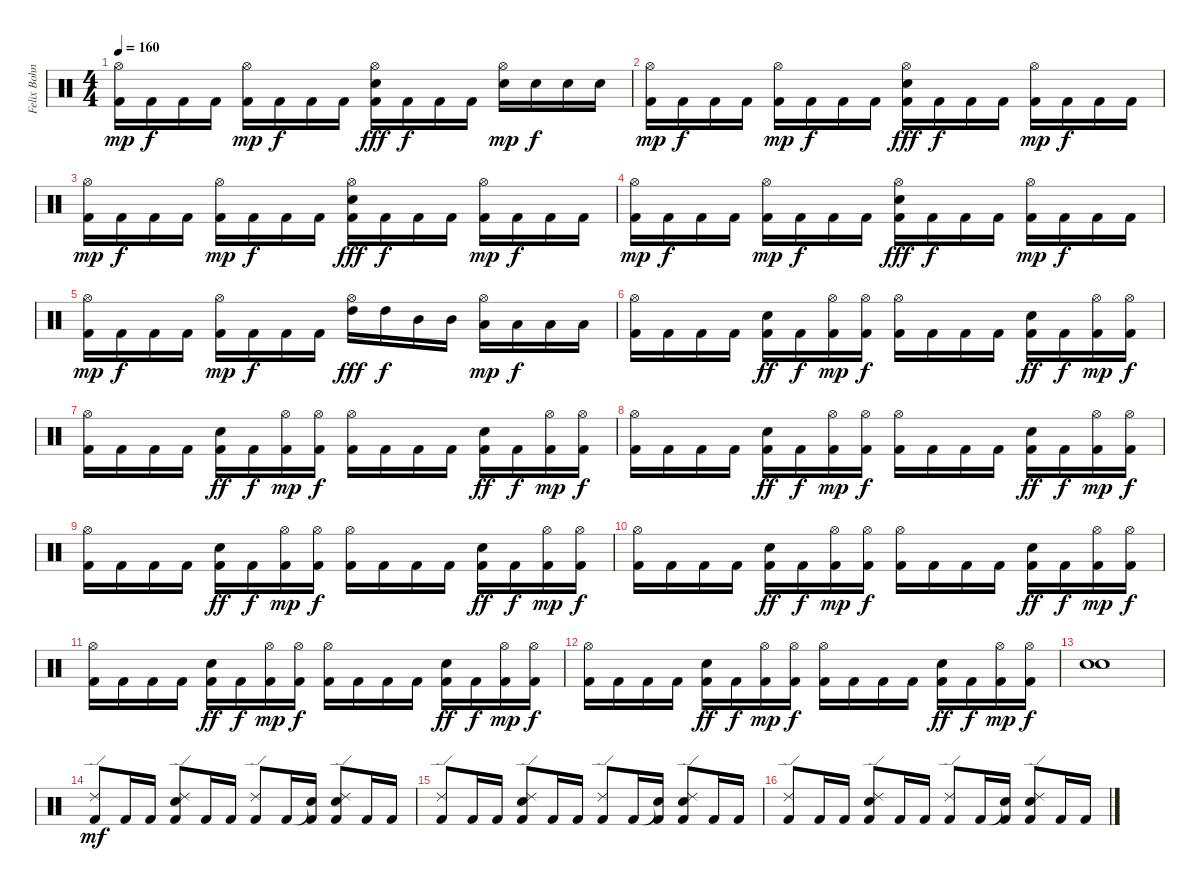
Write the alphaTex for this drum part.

\track ("Felix Bohnke" "Felix Bohn") {instrument percussion}
\staff {score}
\articulation defaults
\ts (4 4)
\tempo 160
\clef neutral
\ks c
("Hi-Hat (open)" "Kick (hit) 2").16{dy mp} "Kick (hit) 2".16{dy f} "Kick (hit) 2".16 "Kick (hit) 2".16 ("Hi-Hat (open)" "Kick (hit) 2").16{dy mp} "Kick (hit) 2".16{dy f} "Kick (hit) 2".16 "Kick (hit) 2".16 ("Hi-Hat (open)" "Electric Snare (hit)" "Kick (hit) 2").16{dy fff} "Kick (hit) 2".16{dy f} "Kick (hit) 2".16 "Kick (hit) 2".16 ("Hi-Hat (open)" "Electric Snare (hit)").16{dy mp} "Electric Snare (hit)".16{dy f} "Electric Snare (hit)".16 "Electric Snare (hit)".16 |
("Hi-Hat (open)" "Kick (hit) 2").16{dy mp} "Kick (hit) 2".16{dy f} "Kick (hit) 2".16 "Kick (hit) 2".16 ("Hi-Hat (open)" "Kick (hit) 2").16{dy mp} "Kick (hit) 2".16{dy f} "Kick (hit) 2".16 "Kick (hit) 2".16 ("Hi-Hat (open)" "Electric Snare (hit)" "Kick (hit) 2").16{dy fff} "Kick (hit) 2".16{dy f} "Kick (hit) 2".16 "Kick (hit) 2".16 ("Hi-Hat (open)" "Kick (hit) 2").16{dy mp} "Kick (hit) 2".16{dy f} "Kick (hit) 2".16 "Kick (hit) 2".16 |
("Hi-Hat (open)" "Kick (hit) 2").16{dy mp} "Kick (hit) 2".16{dy f} "Kick (hit) 2".16 "Kick (hit) 2".16 ("Hi-Hat (open)" "Kick (hit) 2").16{dy mp} "Kick (hit) 2".16{dy f} "Kick (hit) 2".16 "Kick (hit) 2".16 ("Hi-Hat (open)" "Electric Snare (hit)" "Kick (hit) 2").16{dy fff} "Kick (hit) 2".16{dy f} "Kick (hit) 2".16 "Kick (hit) 2".16 ("Hi-Hat (open)" "Kick (hit) 2").16{dy mp} "Kick (hit) 2".16{dy f} "Kick (hit) 2".16 "Kick (hit) 2".16 |
("Hi-Hat (open)" "Kick (hit) 2").16{dy mp} "Kick (hit) 2".16{dy f} "Kick (hit) 2".16 "Kick (hit) 2".16 ("Hi-Hat (open)" "Kick (hit) 2").16{dy mp} "Kick (hit) 2".16{dy f} "Kick (hit) 2".16 "Kick (hit) 2".16 ("Hi-Hat (open)" "Electric Snare (hit)" "Kick (hit) 2").16{dy fff} "Kick (hit) 2".16{dy f} "Kick (hit) 2".16 "Kick (hit) 2".16 ("Hi-Hat (open)" "Kick (hit) 2").16{dy mp} "Kick (hit) 2".16{dy f} "Kick (hit) 2".16 "Kick (hit) 2".16 |
("Hi-Hat (open)" "Kick (hit) 2").16{dy mp} "Kick (hit) 2".16{dy f} "Kick (hit) 2".16 "Kick (hit) 2".16 ("Hi-Hat (open)" "Kick (hit) 2").16{dy mp} "Kick (hit) 2".16{dy f} "Kick (hit) 2".16 "Kick (hit) 2".16 ("Hi-Hat (open)" "High Tom (hit)").16{dy fff} "High Tom (hit)".16{dy f} "Mid Tom (hit)".16 "Mid Tom (hit)".16 ("Hi-Hat (open)" "Low Tom (hit)").16{dy mp} "Low Tom (hit)".16{dy f} "Low Floor Tom (hit)".16 "Low Floor Tom (hit)".16 |
("Hi-Hat (open)" "Kick (hit) 2").16 "Kick (hit) 2".16 "Kick (hit) 2".16 "Kick (hit) 2".16 ("Electric Snare (hit)" "Kick (hit) 2").16{dy ff} "Kick (hit) 2".16{dy f} ("Hi-Hat (open)" "Kick (hit) 2").16{dy mp} ("Hi-Hat (open)" "Kick (hit) 2").16{dy f} ("Hi-Hat (open)" "Kick (hit) 2").16 "Kick (hit) 2".16 "Kick (hit) 2".16 "Kick (hit) 2".16 ("Electric Snare (hit)" "Kick (hit) 2").16{dy ff} "Kick (hit) 2".16{dy f} ("Hi-Hat (open)" "Kick (hit) 2").16{dy mp} ("Hi-Hat (open)" "Kick (hit) 2").16{dy f} |
("Hi-Hat (open)" "Kick (hit) 2").16 "Kick (hit) 2".16 "Kick (hit) 2".16 "Kick (hit) 2".16 ("Electric Snare (hit)" "Kick (hit) 2").16{dy ff} "Kick (hit) 2".16{dy f} ("Hi-Hat (open)" "Kick (hit) 2").16{dy mp} ("Hi-Hat (open)" "Kick (hit) 2").16{dy f} ("Hi-Hat (open)" "Kick (hit) 2").16 "Kick (hit) 2".16 "Kick (hit) 2".16 "Kick (hit) 2".16 ("Electric Snare (hit)" "Kick (hit) 2").16{dy ff} "Kick (hit) 2".16{dy f} ("Hi-Hat (open)" "Kick (hit) 2").16{dy mp} ("Hi-Hat (open)" "Kick (hit) 2").16{dy f} |
("Hi-Hat (open)" "Kick (hit) 2").16 "Kick (hit) 2".16 "Kick (hit) 2".16 "Kick (hit) 2".16 ("Electric Snare (hit)" "Kick (hit) 2").16{dy ff} "Kick (hit) 2".16{dy f} ("Hi-Hat (open)" "Kick (hit) 2").16{dy mp} ("Hi-Hat (open)" "Kick (hit) 2").16{dy f} ("Hi-Hat (open)" "Kick (hit) 2").16 "Kick (hit) 2".16 "Kick (hit) 2".16 "Kick (hit) 2".16 ("Electric Snare (hit)" "Kick (hit) 2").16{dy ff} "Kick (hit) 2".16{dy f} ("Hi-Hat (open)" "Kick (hit) 2").16{dy mp} ("Hi-Hat (open)" "Kick (hit) 2").16{dy f} |
("Hi-Hat (open)" "Kick (hit) 2").16 "Kick (hit) 2".16 "Kick (hit) 2".16 "Kick (hit) 2".16 ("Electric Snare (hit)" "Kick (hit) 2").16{dy ff} "Kick (hit) 2".16{dy f} ("Hi-Hat (open)" "Kick (hit) 2").16{dy mp} ("Hi-Hat (open)" "Kick (hit) 2").16{dy f} ("Hi-Hat (open)" "Kick (hit) 2").16 "Kick (hit) 2".16 "Kick (hit) 2".16 "Kick (hit) 2".16 ("Electric Snare (hit)" "Kick (hit) 2").16{dy ff} "Kick (hit) 2".16{dy f} ("Hi-Hat (open)" "Kick (hit) 2").16{dy mp} ("Hi-Hat (open)" "Kick (hit) 2").16{dy f} |
("Hi-Hat (open)" "Kick (hit) 2").16 "Kick (hit) 2".16 "Kick (hit) 2".16 "Kick (hit) 2".16 ("Electric Snare (hit)" "Kick (hit) 2").16{dy ff} "Kick (hit) 2".16{dy f} ("Hi-Hat (open)" "Kick (hit) 2").16{dy mp} ("Hi-Hat (open)" "Kick (hit) 2").16{dy f} ("Hi-Hat (open)" "Kick (hit) 2").16 "Kick (hit) 2".16 "Kick (hit) 2".16 "Kick (hit) 2".16 ("Electric Snare (hit)" "Kick (hit) 2").16{dy ff} "Kick (hit) 2".16{dy f} ("Hi-Hat (open)" "Kick (hit) 2").16{dy mp} ("Hi-Hat (open)" "Kick (hit) 2").16{dy f} |
("Hi-Hat (open)" "Kick (hit) 2").16 "Kick (hit) 2".16 "Kick (hit) 2".16 "Kick (hit) 2".16 ("Electric Snare (hit)" "Kick (hit) 2").16{dy ff} "Kick (hit) 2".16{dy f} ("Hi-Hat (open)" "Kick (hit) 2").16{dy mp} ("Hi-Hat (open)" "Kick (hit) 2").16{dy f} ("Hi-Hat (open)" "Kick (hit) 2").16 "Kick (hit) 2".16 "Kick (hit) 2".16 "Kick (hit) 2".16 ("Electric Snare (hit)" "Kick (hit) 2").16{dy ff} "Kick (hit) 2".16{dy f} ("Hi-Hat (open)" "Kick (hit) 2").16{dy mp} ("Hi-Hat (open)" "Kick (hit) 2").16{dy f} |
("Hi-Hat (open)" "Kick (hit) 2").16 "Kick (hit) 2".16 "Kick (hit) 2".16 "Kick (hit) 2".16 ("Electric Snare (hit)" "Kick (hit) 2").16{dy ff} "Kick (hit) 2".16{dy f} ("Hi-Hat (open)" "Kick (hit) 2").16{dy mp} ("Hi-Hat (open)" "Kick (hit) 2").16{dy f} ("Hi-Hat (open)" "Kick (hit) 2").16 "Kick (hit) 2".16 "Kick (hit) 2".16 "Kick (hit) 2".16 ("Electric Snare (hit)" "Kick (hit) 2").16{dy ff} "Kick (hit) 2".16{dy f} ("Hi-Hat (open)" "Kick (hit) 2").16{dy mp} ("Hi-Hat (open)" "Kick (hit) 2").16{dy f} |
("Electric Snare (hit)" "Electric Snare (hit)").1 |
("Ride (edge) 2" "Kick (hit) 2").8{dy mf} "Kick (hit) 2".16 "Kick (hit) 2".16 ("Ride (edge) 2" "Electric Snare (hit)" "Kick (hit) 2").8 "Kick (hit) 2".16 "Kick (hit) 2".16 ("Ride (edge) 2" "Kick (hit) 2").8 "Kick (hit) 2".16 ("Snare (hit)"{t} "Kick (hit) 2").16 ("Ride (edge) 2" "Electric Snare (hit)" "Kick (hit) 2").8 "Kick (hit) 2".16 "Kick (hit) 2".16 |
("Ride (edge) 2" "Kick (hit) 2").8 "Kick (hit) 2".16 "Kick (hit) 2".16 ("Ride (edge) 2" "Electric Snare (hit)" "Kick (hit) 2").8 "Kick (hit) 2".16 "Kick (hit) 2".16 ("Ride (edge) 2" "Kick (hit) 2").8 "Kick (hit) 2".16 ("Snare (hit)"{t} "Kick (hit) 2").16 ("Ride (edge) 2" "Electric Snare (hit)" "Kick (hit) 2").8 "Kick (hit) 2".16 "Kick (hit) 2".16 |
("Ride (edge) 2" "Kick (hit) 2").8 "Kick (hit) 2".16 "Kick (hit) 2".16 ("Ride (edge) 2" "Electric Snare (hit)" "Kick (hit) 2").8 "Kick (hit) 2".16 "Kick (hit) 2".16 ("Ride (edge) 2" "Kick (hit) 2").8 "Kick (hit) 2".16 ("Snare (hit)"{t} "Kick (hit) 2").16 ("Ride (edge) 2" "Electric Snare (hit)" "Kick (hit) 2").8 "Kick (hit) 2".16 "Kick (hit) 2".16
